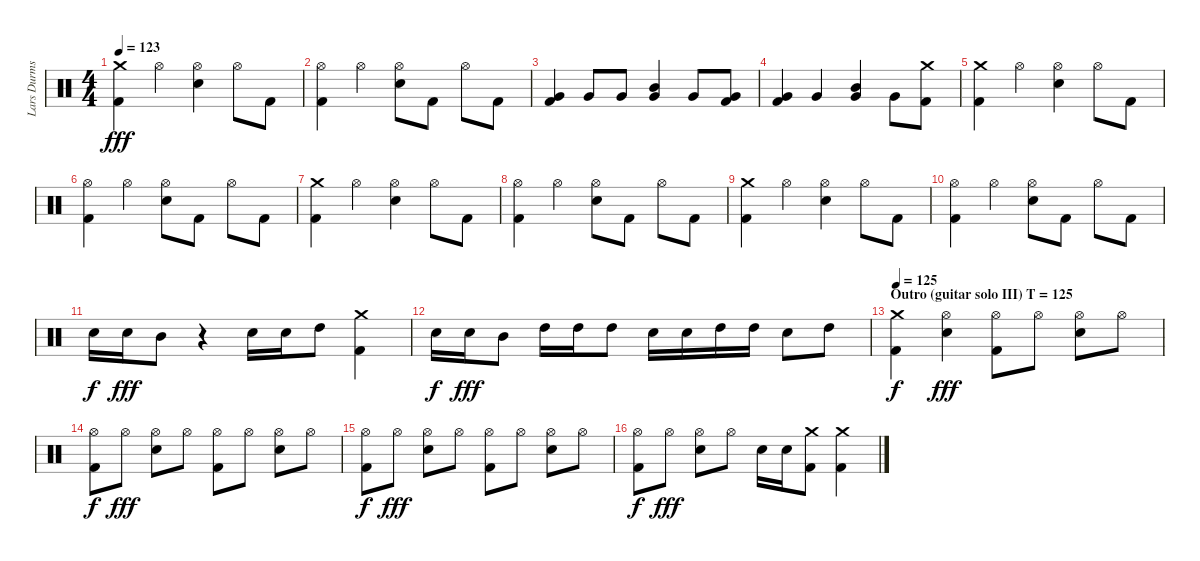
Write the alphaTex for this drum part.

\track ("Lars Durms" "Lars Durms") {instrument percussion}
\staff {score}
\articulation defaults
\ts (4 4)
\tempo 123
\clef neutral
\ks c
("Kick (hit) 2" "Crash medium (hit)").4{dy fff} "Hi-Hat (open)".4 ("Snare (hit) 2" "Hi-Hat (open)").4 "Hi-Hat (open)".8 "Kick (hit) 2".8 |
("Hi-Hat (open)" "Kick (hit) 2").4 "Hi-Hat (open)".4 ("Snare (hit) 2" "Hi-Hat (open)").8 "Kick (hit) 2".8 "Hi-Hat (open)".8 "Kick (hit) 2".8 |
("Kick (hit) 2" "Very Low Tom (hit)").4 "Very Low Tom (hit)".8 "Very Low Tom (hit)".8 ("Mid Tom (hit)" "Very Low Tom (hit)").4 "Very Low Tom (hit)".8 ("Kick (hit) 2" "Very Low Tom (hit)").8 |
("Kick (hit) 2" "Very Low Tom (hit)").4 "Very Low Tom (hit)".4 ("Very Low Tom (hit)" "Mid Tom (hit)").4 "Very Low Tom (hit)".8 ("Kick (hit) 2" "Crash medium (hit)").8 |
("Kick (hit) 2" "Crash medium (hit)").4 "Hi-Hat (open)".4 ("Snare (hit) 2" "Hi-Hat (open)").4 "Hi-Hat (open)".8 "Kick (hit) 2".8 |
("Hi-Hat (open)" "Kick (hit) 2").4 "Hi-Hat (open)".4 ("Snare (hit) 2" "Hi-Hat (open)").8 "Kick (hit) 2".8 "Hi-Hat (open)".8 "Kick (hit) 2".8 |
("Kick (hit) 2" "Crash medium (hit)").4 "Hi-Hat (open)".4 ("Snare (hit) 2" "Hi-Hat (open)").4 "Hi-Hat (open)".8 "Kick (hit) 2".8 |
("Hi-Hat (open)" "Kick (hit) 2").4 "Hi-Hat (open)".4 ("Snare (hit) 2" "Hi-Hat (open)").8 "Kick (hit) 2".8 "Hi-Hat (open)".8 "Kick (hit) 2".8 |
("Kick (hit) 2" "Crash medium (hit)").4 "Hi-Hat (open)".4 ("Snare (hit) 2" "Hi-Hat (open)").4 "Hi-Hat (open)".8 "Kick (hit) 2".8 |
("Hi-Hat (open)" "Kick (hit) 2").4 "Hi-Hat (open)".4 ("Snare (hit) 2" "Hi-Hat (open)").8 "Kick (hit) 2".8 "Hi-Hat (open)".8 "Kick (hit) 2".8 |
"Snare (hit) 2".16{dy f} "Snare (hit) 2".16{dy fff} "Mid Tom (hit)".8 r.4 "Snare (hit) 2".16 "Snare (hit) 2".16 "High Tom (hit)".8 ("Crash medium (hit)" "Kick (hit) 2").4 |
"Snare (hit) 2".16{dy f} "Snare (hit) 2".16{dy fff} "Mid Tom (hit)".8 "High Tom (hit)".16 "High Tom (hit)".16 "High Tom (hit)".8 "Snare (hit) 2".16 "Snare (hit) 2".16 "High Tom (hit)".16 "High Tom (hit)".16 "Snare (hit) 2".8 "High Tom (hit)".8 |
\section ("" "Outro (guitar solo III) T = 125")
\tempo 125
("Kick (hit) 2" "Crash medium (hit)").4{dy f} ("Hi-Hat (open)" "Snare (hit) 2").4{dy fff} ("Kick (hit) 2" "Hi-Hat (open)").8 "Hi-Hat (open)".8 ("Snare (hit) 2" "Hi-Hat (open)").8 "Hi-Hat (open)".8 |
("Kick (hit) 2" "Hi-Hat (open)").8{dy f} "Hi-Hat (open)".8{dy fff} ("Snare (hit) 2" "Hi-Hat (open)").8 "Hi-Hat (open)".8 ("Kick (hit) 2" "Hi-Hat (open)").8 "Hi-Hat (open)".8 ("Snare (hit) 2" "Hi-Hat (open)").8 "Hi-Hat (open)".8 |
("Kick (hit) 2" "Hi-Hat (open)").8{dy f} "Hi-Hat (open)".8{dy fff} ("Snare (hit) 2" "Hi-Hat (open)").8 "Hi-Hat (open)".8 ("Kick (hit) 2" "Hi-Hat (open)").8 "Hi-Hat (open)".8 ("Snare (hit) 2" "Hi-Hat (open)").8 "Hi-Hat (open)".8 |
("Kick (hit) 2" "Hi-Hat (open)").8{dy f} "Hi-Hat (open)".8{dy fff} ("Snare (hit) 2" "Hi-Hat (open)").8 "Hi-Hat (open)".8 "Snare (hit) 2".16 "Snare (hit) 2".16 ("Crash medium (hit)" "Kick (hit) 2").8 ("Crash medium (hit)" "Kick (hit) 2").4
